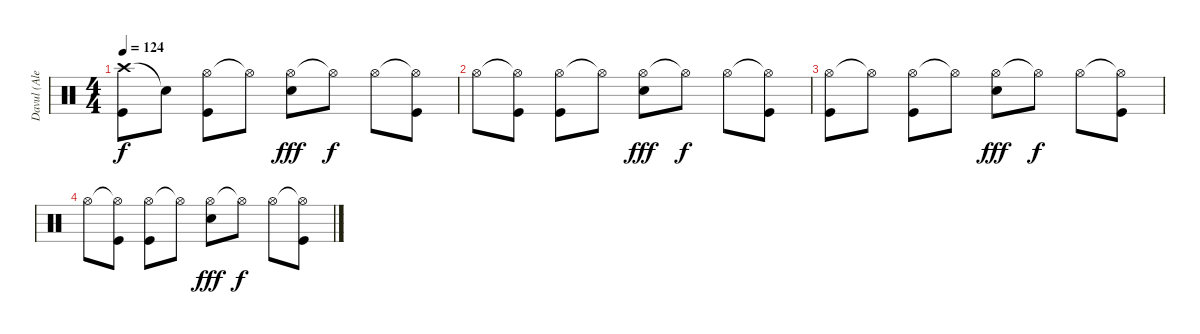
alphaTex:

\track ("Davul (Alen)" "Davul (Ale") {instrument percussion}
\staff {score}
\articulation defaults
\ts (4 4)
\tempo 124
\clef neutral
\ks c
("Crash high (hit)" "Kick (hit)").8{dy f volume 4} "Snare (hit)"{t}.8 ("Hi-Hat (open)" "Kick (hit)").8 "Hi-Hat (open)"{t}.8 ("Hi-Hat (open)" "Electric Snare (hit)").8{dy fff} "Hi-Hat (open)"{t}.8{dy f} "Hi-Hat (open)".8 ("Hi-Hat (open)"{t} "Kick (hit)").8 |
"Hi-Hat (open)".8 ("Hi-Hat (open)"{t} "Kick (hit)").8 ("Hi-Hat (open)" "Kick (hit)").8 "Hi-Hat (open)"{t}.8 ("Hi-Hat (open)" "Electric Snare (hit)").8{dy fff} "Hi-Hat (open)"{t}.8{dy f} "Hi-Hat (open)".8 ("Hi-Hat (open)"{t} "Kick (hit)").8 |
("Hi-Hat (open)" "Kick (hit)").8 "Hi-Hat (open)"{t}.8 ("Hi-Hat (open)" "Kick (hit)").8 "Hi-Hat (open)"{t}.8 ("Hi-Hat (open)" "Electric Snare (hit)").8{dy fff} "Hi-Hat (open)"{t}.8{dy f} "Hi-Hat (open)".8 ("Hi-Hat (open)"{t} "Kick (hit)").8 |
"Hi-Hat (open)".8 ("Hi-Hat (open)"{t} "Kick (hit)").8 ("Hi-Hat (open)" "Kick (hit)").8 "Hi-Hat (open)"{t}.8 ("Hi-Hat (open)" "Electric Snare (hit)").8{dy fff} "Hi-Hat (open)"{t}.8{dy f} "Hi-Hat (open)".8 ("Hi-Hat (open)"{t} "Kick (hit)").8
